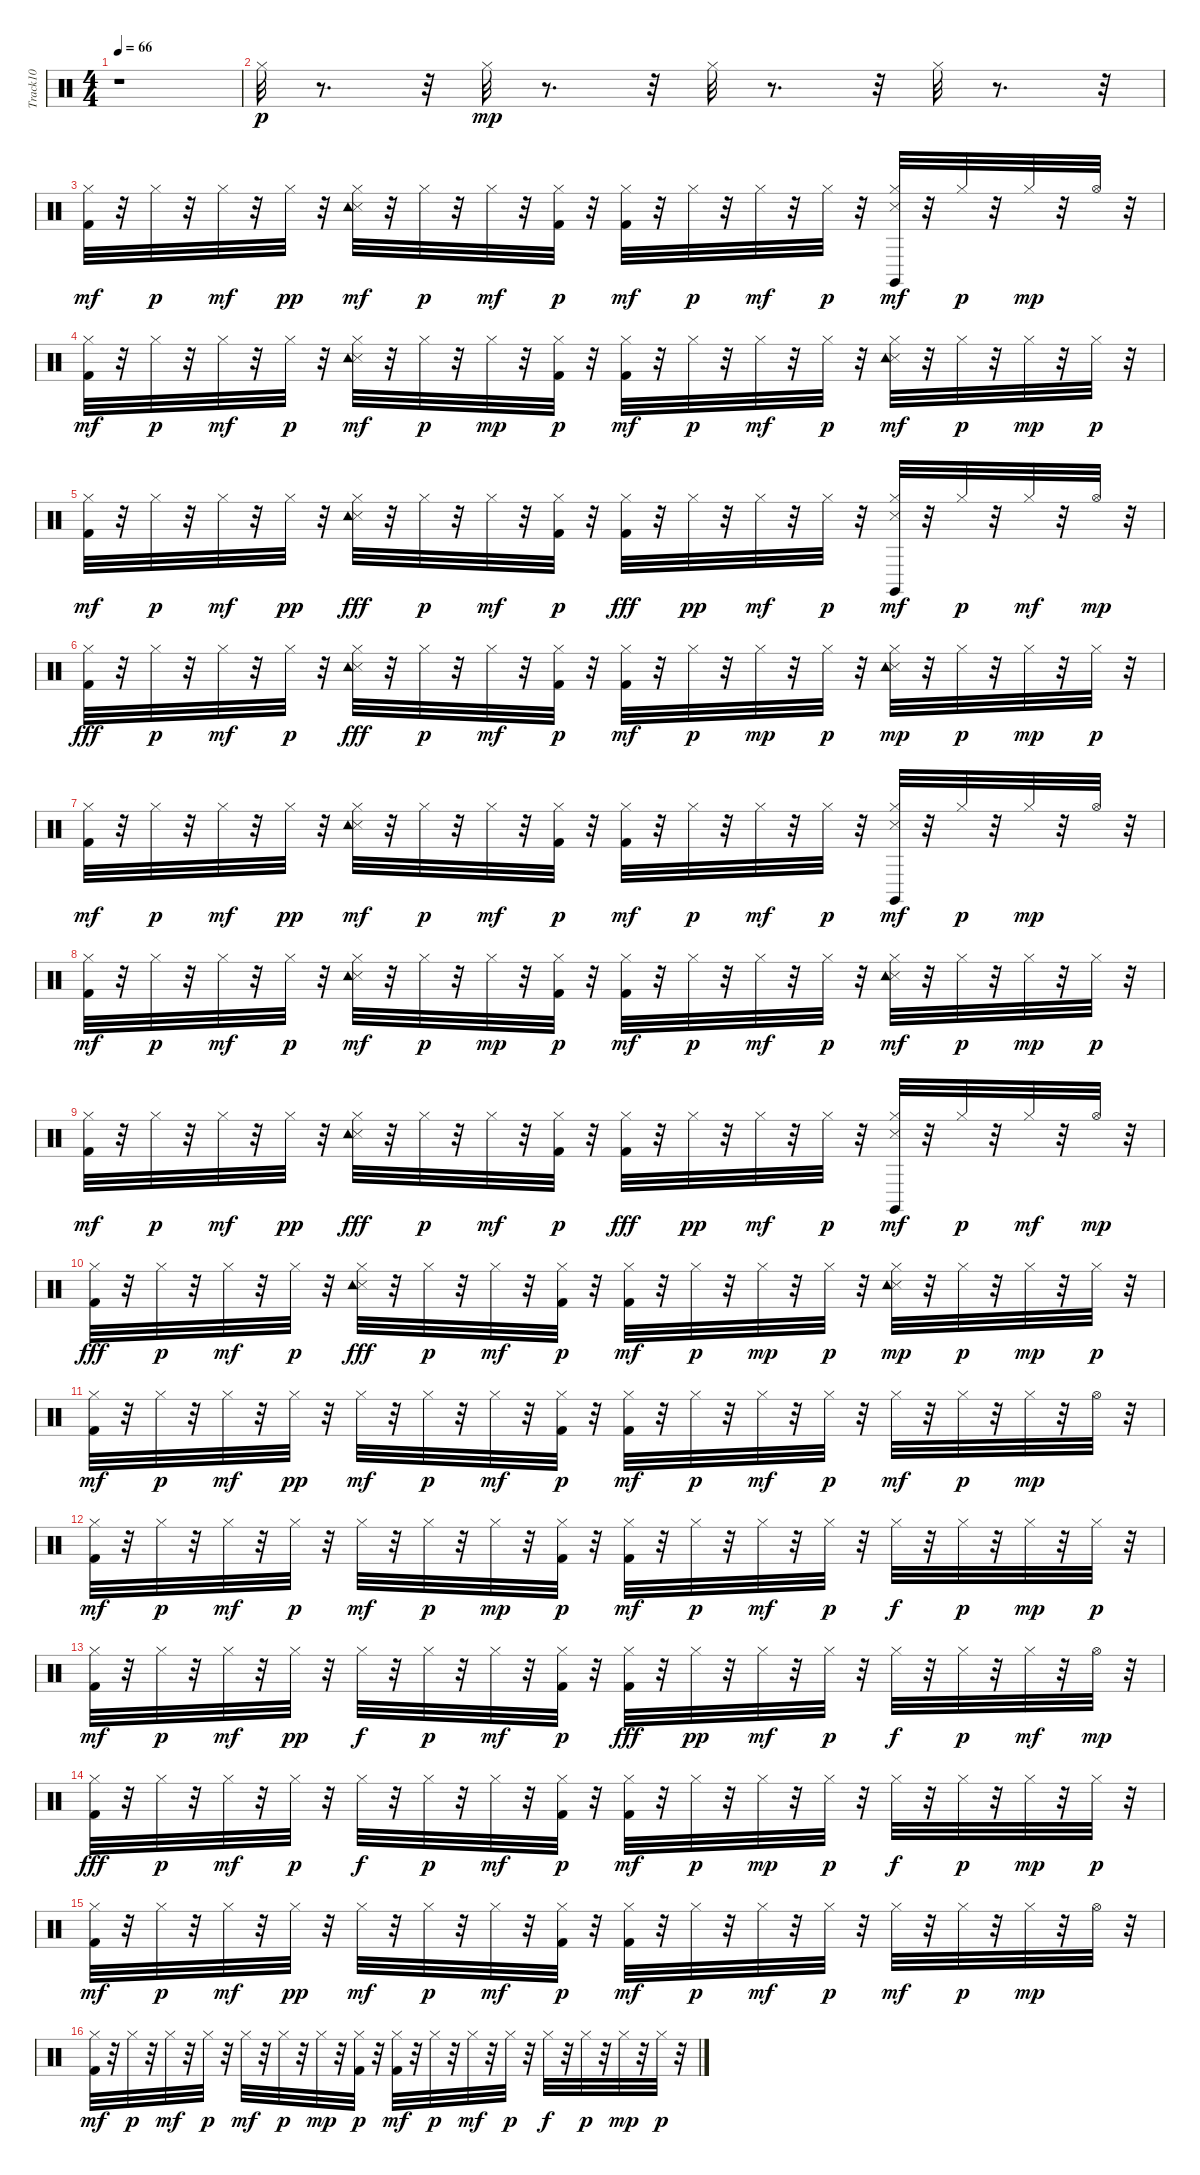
\track ("Track10" "Track10") {instrument percussion}
\staff {score}
\articulation defaults
\ts (4 4)
\tempo 66
\clef neutral
\ks c
r.1{dy p} |
"Hi-Hat (closed)".32{volume 11 balance 8} r.8{d} r.32 "Hi-Hat (closed)".32{dy mp} r.8{d} r.32 "Hi-Hat (closed)".32 r.8{d} r.32 "Hi-Hat (closed)".32 r.8{d} r.32 |
("Kick (hit) 2" "Hi-Hat (closed)").32{dy mf} r.32 "Hi-Hat (closed)".32{dy p} r.32 "Hi-Hat (closed)".32{dy mf} r.32 "Hi-Hat (closed)".32{dy pp} r.32 ("Snare (side stick) 3" "Tambourine (hit)" "Hi-Hat (closed)").32{dy mf} r.32 "Hi-Hat (closed)".32{dy p} r.32 "Hi-Hat (closed)".32{dy mf} r.32 ("Kick (hit) 2" "Hi-Hat (closed)").32{dy p} r.32 ("Kick (hit) 2" "Hi-Hat (closed)").32{dy mf} r.32 "Hi-Hat (closed)".32{dy p} r.32 "Hi-Hat (closed)".32{dy mf} r.32 "Hi-Hat (closed)".32{dy p} r.32 ("Snare (side stick) 3" "Claves (hit)" "Hi-Hat (closed)").32{dy mf} r.32 "Hi-Hat (closed)".32{dy p} r.32 "Hi-Hat (closed)".32{dy mp} r.32 "Hi-Hat (open)".32 r.32 |
("Kick (hit) 2" "Hi-Hat (closed)").32{dy mf} r.32 "Hi-Hat (closed)".32{dy p} r.32 "Hi-Hat (closed)".32{dy mf} r.32 "Hi-Hat (closed)".32{dy p} r.32 ("Snare (side stick) 3" "Tambourine (hit)" "Hi-Hat (closed)").32{dy mf} r.32 "Hi-Hat (closed)".32{dy p} r.32 "Hi-Hat (closed)".32{dy mp} r.32 ("Kick (hit) 2" "Hi-Hat (closed)").32{dy p} r.32 ("Kick (hit) 2" "Hi-Hat (closed)").32{dy mf} r.32 "Hi-Hat (closed)".32{dy p} r.32 "Hi-Hat (closed)".32{dy mf} r.32 "Hi-Hat (closed)".32{dy p} r.32 ("Snare (side stick) 3" "Tambourine (hit)" "Hi-Hat (closed)").32{dy mf} r.32 "Hi-Hat (closed)".32{dy p} r.32 "Hi-Hat (closed)".32{dy mp} r.32 "Hi-Hat (closed)".32{dy p} r.32 |
("Kick (hit) 2" "Hi-Hat (closed)").32{dy mf} r.32 "Hi-Hat (closed)".32{dy p} r.32 "Hi-Hat (closed)".32{dy mf} r.32 "Hi-Hat (closed)".32{dy pp} r.32 ("Snare (side stick) 3" "Tambourine (hit)" "Hi-Hat (closed)").32{dy fff} r.32 "Hi-Hat (closed)".32{dy p} r.32 "Hi-Hat (closed)".32{dy mf} r.32 ("Kick (hit) 2" "Hi-Hat (closed)").32{dy p} r.32 ("Kick (hit) 2" "Hi-Hat (closed)").32{dy fff} r.32 "Hi-Hat (closed)".32{dy pp} r.32 "Hi-Hat (closed)".32{dy mf} r.32 "Hi-Hat (closed)".32{dy p} r.32 ("Snare (side stick) 3" "Claves (hit)" "Hi-Hat (closed)").32{dy mf} r.32 "Hi-Hat (closed)".32{dy p} r.32 "Hi-Hat (closed)".32{dy mf} r.32 "Hi-Hat (open)".32{dy mp} r.32 |
("Kick (hit) 2" "Hi-Hat (closed)").32{dy fff} r.32 "Hi-Hat (closed)".32{dy p} r.32 "Hi-Hat (closed)".32{dy mf} r.32 "Hi-Hat (closed)".32{dy p} r.32 ("Snare (side stick) 3" "Tambourine (hit)" "Hi-Hat (closed)").32{dy fff} r.32 "Hi-Hat (closed)".32{dy p} r.32 "Hi-Hat (closed)".32{dy mf} r.32 ("Kick (hit) 2" "Hi-Hat (closed)").32{dy p} r.32 ("Kick (hit) 2" "Hi-Hat (closed)").32{dy mf} r.32 "Hi-Hat (closed)".32{dy p} r.32 "Hi-Hat (closed)".32{dy mp} r.32 "Hi-Hat (closed)".32{dy p} r.32 ("Snare (side stick) 3" "Tambourine (hit)" "Hi-Hat (closed)").32{dy mp} r.32 "Hi-Hat (closed)".32{dy p} r.32 "Hi-Hat (closed)".32{dy mp} r.32 "Hi-Hat (closed)".32{dy p} r.32 |
("Kick (hit) 2" "Hi-Hat (closed)").32{dy mf} r.32 "Hi-Hat (closed)".32{dy p} r.32 "Hi-Hat (closed)".32{dy mf} r.32 "Hi-Hat (closed)".32{dy pp} r.32 ("Snare (side stick) 3" "Tambourine (hit)" "Hi-Hat (closed)").32{dy mf} r.32 "Hi-Hat (closed)".32{dy p} r.32 "Hi-Hat (closed)".32{dy mf} r.32 ("Kick (hit) 2" "Hi-Hat (closed)").32{dy p} r.32 ("Kick (hit) 2" "Hi-Hat (closed)").32{dy mf} r.32 "Hi-Hat (closed)".32{dy p} r.32 "Hi-Hat (closed)".32{dy mf} r.32 "Hi-Hat (closed)".32{dy p} r.32 ("Snare (side stick) 3" "Claves (hit)" "Hi-Hat (closed)").32{dy mf} r.32 "Hi-Hat (closed)".32{dy p} r.32 "Hi-Hat (closed)".32{dy mp} r.32 "Hi-Hat (open)".32 r.32 |
("Kick (hit) 2" "Hi-Hat (closed)").32{dy mf} r.32 "Hi-Hat (closed)".32{dy p} r.32 "Hi-Hat (closed)".32{dy mf} r.32 "Hi-Hat (closed)".32{dy p} r.32 ("Snare (side stick) 3" "Tambourine (hit)" "Hi-Hat (closed)").32{dy mf} r.32 "Hi-Hat (closed)".32{dy p} r.32 "Hi-Hat (closed)".32{dy mp} r.32 ("Kick (hit) 2" "Hi-Hat (closed)").32{dy p} r.32 ("Kick (hit) 2" "Hi-Hat (closed)").32{dy mf} r.32 "Hi-Hat (closed)".32{dy p} r.32 "Hi-Hat (closed)".32{dy mf} r.32 "Hi-Hat (closed)".32{dy p} r.32 ("Snare (side stick) 3" "Tambourine (hit)" "Hi-Hat (closed)").32{dy mf} r.32 "Hi-Hat (closed)".32{dy p} r.32 "Hi-Hat (closed)".32{dy mp} r.32 "Hi-Hat (closed)".32{dy p} r.32 |
("Kick (hit) 2" "Hi-Hat (closed)").32{dy mf} r.32 "Hi-Hat (closed)".32{dy p} r.32 "Hi-Hat (closed)".32{dy mf} r.32 "Hi-Hat (closed)".32{dy pp} r.32 ("Snare (side stick) 3" "Tambourine (hit)" "Hi-Hat (closed)").32{dy fff} r.32 "Hi-Hat (closed)".32{dy p} r.32 "Hi-Hat (closed)".32{dy mf} r.32 ("Kick (hit) 2" "Hi-Hat (closed)").32{dy p} r.32 ("Kick (hit) 2" "Hi-Hat (closed)").32{dy fff} r.32 "Hi-Hat (closed)".32{dy pp} r.32 "Hi-Hat (closed)".32{dy mf} r.32 "Hi-Hat (closed)".32{dy p} r.32 ("Snare (side stick) 3" "Claves (hit)" "Hi-Hat (closed)").32{dy mf} r.32 "Hi-Hat (closed)".32{dy p} r.32 "Hi-Hat (closed)".32{dy mf} r.32 "Hi-Hat (open)".32{dy mp} r.32 |
("Kick (hit) 2" "Hi-Hat (closed)").32{dy fff} r.32 "Hi-Hat (closed)".32{dy p} r.32 "Hi-Hat (closed)".32{dy mf} r.32 "Hi-Hat (closed)".32{dy p} r.32 ("Snare (side stick) 3" "Tambourine (hit)" "Hi-Hat (closed)").32{dy fff} r.32 "Hi-Hat (closed)".32{dy p} r.32 "Hi-Hat (closed)".32{dy mf} r.32 ("Kick (hit) 2" "Hi-Hat (closed)").32{dy p} r.32 ("Kick (hit) 2" "Hi-Hat (closed)").32{dy mf} r.32 "Hi-Hat (closed)".32{dy p} r.32 "Hi-Hat (closed)".32{dy mp} r.32 "Hi-Hat (closed)".32{dy p} r.32 ("Snare (side stick) 3" "Tambourine (hit)" "Hi-Hat (closed)").32{dy mp} r.32 "Hi-Hat (closed)".32{dy p} r.32 "Hi-Hat (closed)".32{dy mp} r.32 "Hi-Hat (closed)".32{dy p} r.32 |
("Kick (hit) 2" "Hi-Hat (closed)").32{dy mf} r.32 "Hi-Hat (closed)".32{dy p} r.32 "Hi-Hat (closed)".32{dy mf} r.32 "Hi-Hat (closed)".32{dy pp} r.32 "Hi-Hat (closed)".32{dy mf} r.32 "Hi-Hat (closed)".32{dy p} r.32 "Hi-Hat (closed)".32{dy mf} r.32 ("Kick (hit) 2" "Hi-Hat (closed)").32{dy p} r.32 ("Kick (hit) 2" "Hi-Hat (closed)").32{dy mf} r.32 "Hi-Hat (closed)".32{dy p} r.32 "Hi-Hat (closed)".32{dy mf} r.32 "Hi-Hat (closed)".32{dy p} r.32 "Hi-Hat (closed)".32{dy mf} r.32 "Hi-Hat (closed)".32{dy p} r.32 "Hi-Hat (closed)".32{dy mp} r.32 "Hi-Hat (open)".32 r.32 |
("Kick (hit) 2" "Hi-Hat (closed)").32{dy mf} r.32 "Hi-Hat (closed)".32{dy p} r.32 "Hi-Hat (closed)".32{dy mf} r.32 "Hi-Hat (closed)".32{dy p} r.32 "Hi-Hat (closed)".32{dy mf} r.32 "Hi-Hat (closed)".32{dy p} r.32 "Hi-Hat (closed)".32{dy mp} r.32 ("Kick (hit) 2" "Hi-Hat (closed)").32{dy p} r.32 ("Kick (hit) 2" "Hi-Hat (closed)").32{dy mf} r.32 "Hi-Hat (closed)".32{dy p} r.32 "Hi-Hat (closed)".32{dy mf} r.32 "Hi-Hat (closed)".32{dy p} r.32 "Hi-Hat (closed)".32{dy f} r.32 "Hi-Hat (closed)".32{dy p} r.32 "Hi-Hat (closed)".32{dy mp} r.32 "Hi-Hat (closed)".32{dy p} r.32 |
("Kick (hit) 2" "Hi-Hat (closed)").32{dy mf} r.32 "Hi-Hat (closed)".32{dy p} r.32 "Hi-Hat (closed)".32{dy mf} r.32 "Hi-Hat (closed)".32{dy pp} r.32 "Hi-Hat (closed)".32{dy f} r.32 "Hi-Hat (closed)".32{dy p} r.32 "Hi-Hat (closed)".32{dy mf} r.32 ("Kick (hit) 2" "Hi-Hat (closed)").32{dy p} r.32 ("Kick (hit) 2" "Hi-Hat (closed)").32{dy fff} r.32 "Hi-Hat (closed)".32{dy pp} r.32 "Hi-Hat (closed)".32{dy mf} r.32 "Hi-Hat (closed)".32{dy p} r.32 "Hi-Hat (closed)".32{dy f} r.32 "Hi-Hat (closed)".32{dy p} r.32 "Hi-Hat (closed)".32{dy mf} r.32 "Hi-Hat (open)".32{dy mp} r.32 |
("Kick (hit) 2" "Hi-Hat (closed)").32{dy fff} r.32 "Hi-Hat (closed)".32{dy p} r.32 "Hi-Hat (closed)".32{dy mf} r.32 "Hi-Hat (closed)".32{dy p} r.32 "Hi-Hat (closed)".32{dy f} r.32 "Hi-Hat (closed)".32{dy p} r.32 "Hi-Hat (closed)".32{dy mf} r.32 ("Kick (hit) 2" "Hi-Hat (closed)").32{dy p} r.32 ("Kick (hit) 2" "Hi-Hat (closed)").32{dy mf} r.32 "Hi-Hat (closed)".32{dy p} r.32 "Hi-Hat (closed)".32{dy mp} r.32 "Hi-Hat (closed)".32{dy p} r.32 "Hi-Hat (closed)".32{dy f} r.32 "Hi-Hat (closed)".32{dy p} r.32 "Hi-Hat (closed)".32{dy mp} r.32 "Hi-Hat (closed)".32{dy p} r.32 |
("Kick (hit) 2" "Hi-Hat (closed)").32{dy mf} r.32 "Hi-Hat (closed)".32{dy p} r.32 "Hi-Hat (closed)".32{dy mf} r.32 "Hi-Hat (closed)".32{dy pp} r.32 "Hi-Hat (closed)".32{dy mf} r.32 "Hi-Hat (closed)".32{dy p} r.32 "Hi-Hat (closed)".32{dy mf} r.32 ("Kick (hit) 2" "Hi-Hat (closed)").32{dy p} r.32 ("Kick (hit) 2" "Hi-Hat (closed)").32{dy mf} r.32 "Hi-Hat (closed)".32{dy p} r.32 "Hi-Hat (closed)".32{dy mf} r.32 "Hi-Hat (closed)".32{dy p} r.32 "Hi-Hat (closed)".32{dy mf} r.32 "Hi-Hat (closed)".32{dy p} r.32 "Hi-Hat (closed)".32{dy mp} r.32 "Hi-Hat (open)".32 r.32 |
("Kick (hit) 2" "Hi-Hat (closed)").32{dy mf} r.32 "Hi-Hat (closed)".32{dy p} r.32 "Hi-Hat (closed)".32{dy mf} r.32 "Hi-Hat (closed)".32{dy p} r.32 "Hi-Hat (closed)".32{dy mf} r.32 "Hi-Hat (closed)".32{dy p} r.32 "Hi-Hat (closed)".32{dy mp} r.32 ("Kick (hit) 2" "Hi-Hat (closed)").32{dy p} r.32 ("Kick (hit) 2" "Hi-Hat (closed)").32{dy mf} r.32 "Hi-Hat (closed)".32{dy p} r.32 "Hi-Hat (closed)".32{dy mf} r.32 "Hi-Hat (closed)".32{dy p} r.32 "Hi-Hat (closed)".32{dy f} r.32 "Hi-Hat (closed)".32{dy p} r.32 "Hi-Hat (closed)".32{dy mp} r.32 "Hi-Hat (closed)".32{dy p} r.32
